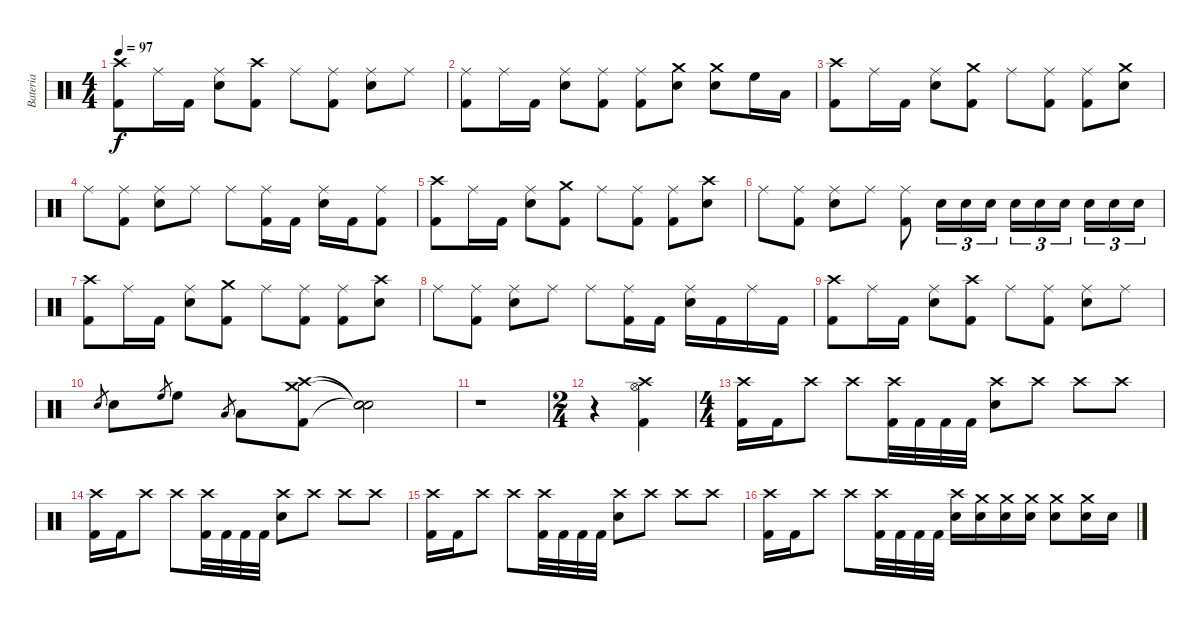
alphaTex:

\track ("Bateria" "Bateria") {instrument percussion}
\staff {score}
\articulation defaults
\ts (4 4)
\tempo 97
\clef neutral
\ks c
("Crash high (hit)" "Kick (hit) 2").8{dy f} "Ride (middle)".16 "Kick (hit) 2".16 ("Ride (middle)" "Electric Snare (hit)").8 ("Crash high (hit)" "Kick (hit) 2").8 "Ride (middle)".8 ("Ride (middle)" "Kick (hit) 2").8 ("Ride (middle)" "Electric Snare (hit)").8 "Ride (middle)".8 |
("Ride (middle)" "Kick (hit) 2").8 "Ride (middle)".16 "Kick (hit) 2".16 ("Ride (middle)" "Electric Snare (hit)").8 ("Ride (middle)" "Kick (hit) 2").8 ("Ride (middle)" "Kick (hit) 2").8 ("Crash medium (hit)" "Electric Snare (hit)").8 ("Crash medium (hit)" "Electric Snare (hit)").8 "High Floor Tom (hit)".16 "Low Tom (hit)".16 |
("Crash high (hit)" "Kick (hit) 2").8 "Ride (middle)".16 "Kick (hit) 2".16 ("Ride (middle)" "Electric Snare (hit)").8 ("Crash medium (hit)" "Kick (hit) 2").8 "Ride (middle)".8 ("Ride (middle)" "Kick (hit) 2").8 ("Ride (middle)" "Kick (hit) 2").8 ("Crash medium (hit)" "Electric Snare (hit)").8 |
"Ride (middle)".8 ("Ride (middle)" "Kick (hit) 2").8 ("Ride (middle)" "Electric Snare (hit)").8 "Ride (middle)".8 "Ride (middle)".8 ("Ride (middle)" "Kick (hit) 2").16 "Kick (hit) 2".16 ("Ride (middle)" "Electric Snare (hit)").16 "Kick (hit) 2".16 ("Ride (middle)" "Kick (hit) 2").8 |
("Crash high (hit)" "Kick (hit) 2").8 "Ride (middle)".16 "Kick (hit) 2".16 ("Ride (middle)" "Electric Snare (hit)").8 ("Crash medium (hit)" "Kick (hit) 2").8 "Ride (middle)".8 ("Ride (middle)" "Kick (hit) 2").8 ("Ride (middle)" "Kick (hit) 2").8 ("Crash high (hit)" "Electric Snare (hit)").8 |
"Ride (middle)".8 ("Ride (middle)" "Kick (hit) 2").8 ("Ride (middle)" "Electric Snare (hit)").8 "Ride (middle)".8 ("Ride (middle)" "Kick (hit) 2").8 "Electric Snare (hit)".16{tu (3 2)} "Electric Snare (hit)".16{tu (3 2)} "Electric Snare (hit)".16{tu (3 2)} "Electric Snare (hit)".16{tu (3 2)} "Electric Snare (hit)".16{tu (3 2)} "Electric Snare (hit)".16{tu (3 2) beam splitsecondary} "Electric Snare (hit)".16{tu (3 2)} "Electric Snare (hit)".16{tu (3 2)} "Electric Snare (hit)".16{tu (3 2)} |
("Crash high (hit)" "Kick (hit) 2").8 "Ride (middle)".16 "Kick (hit) 2".16 ("Ride (middle)" "Electric Snare (hit)").8 ("Crash medium (hit)" "Kick (hit) 2").8 "Ride (middle)".8 ("Ride (middle)" "Kick (hit) 2").8 ("Ride (middle)" "Kick (hit) 2").8 ("Crash high (hit)" "Electric Snare (hit)").8 |
"Ride (middle)".8 ("Ride (middle)" "Kick (hit) 2").8 ("Ride (middle)" "Electric Snare (hit)").8 "Ride (middle)".8 "Ride (middle)".8 ("Ride (middle)" "Kick (hit) 2").16 "Kick (hit) 2".16 ("Ride (middle)" "Electric Snare (hit)").16 "Kick (hit) 2".16 "Ride (middle)".16 "Kick (hit) 2".16 |
("Crash high (hit)" "Kick (hit) 2").8 "Ride (middle)".16 "Kick (hit) 2".16 ("Ride (middle)" "Electric Snare (hit)").8 ("Crash high (hit)" "Kick (hit) 2").8 "Ride (middle)".8 ("Ride (middle)" "Kick (hit) 2").8 ("Ride (middle)" "Electric Snare (hit)").8 "Ride (middle)".8 |
"Electric Snare (hit)".8{gr} "Electric Snare (hit)".8 "High Floor Tom (hit)".8{gr} "High Floor Tom (hit)".8 "Low Tom (hit)".8{gr} "Low Tom (hit)".8 ("Crash medium (hit)" "Crash high (hit)" "Kick (hit) 2").8 ("Snare (hit)"{t} "Snare (hit)"{t} "Snare (hit)"{t}).2 |
r.1 |
\ts (2 4)
r.4 ("Crash high (hit)" "Hi-Hat (open)" "Kick (hit) 2").4 |
\ts (4 4)
("Crash high (hit)" "Kick (hit) 2").16 "Kick (hit) 2".16 "Crash high (hit)".8 "Crash high (hit)".8 ("Crash high (hit)" "Kick (hit) 2").32 "Kick (hit) 2".32 "Kick (hit) 2".32 "Kick (hit) 2".32 ("Crash high (hit)" "Electric Snare (hit)").8 "Crash high (hit)".8 "Crash high (hit)".8 "Crash high (hit)".8 |
("Crash high (hit)" "Kick (hit) 2").16 "Kick (hit) 2".16 "Crash high (hit)".8 "Crash high (hit)".8 ("Crash high (hit)" "Kick (hit) 2").32 "Kick (hit) 2".32 "Kick (hit) 2".32 "Kick (hit) 2".32 ("Crash high (hit)" "Electric Snare (hit)").8 "Crash high (hit)".8 "Crash high (hit)".8 "Crash high (hit)".8 |
("Crash high (hit)" "Kick (hit) 2").16 "Kick (hit) 2".16 "Crash high (hit)".8 "Crash high (hit)".8 ("Crash high (hit)" "Kick (hit) 2").32 "Kick (hit) 2".32 "Kick (hit) 2".32 "Kick (hit) 2".32 ("Crash high (hit)" "Electric Snare (hit)").8 "Crash high (hit)".8 "Crash high (hit)".8 "Crash high (hit)".8 |
("Crash high (hit)" "Kick (hit) 2").16 "Kick (hit) 2".16 "Crash high (hit)".8 "Crash high (hit)".8 ("Crash high (hit)" "Kick (hit) 2").32 "Kick (hit) 2".32 "Kick (hit) 2".32 "Kick (hit) 2".32 ("Crash high (hit)" "Electric Snare (hit)").16 ("Crash medium (hit)" "Electric Snare (hit)").16 ("Crash medium (hit)" "Electric Snare (hit)").16 ("Crash medium (hit)" "Electric Snare (hit)").16 ("Crash medium (hit)" "Electric Snare (hit)").8 ("Crash medium (hit)" "Electric Snare (hit)").16 "Electric Snare (hit)".16
